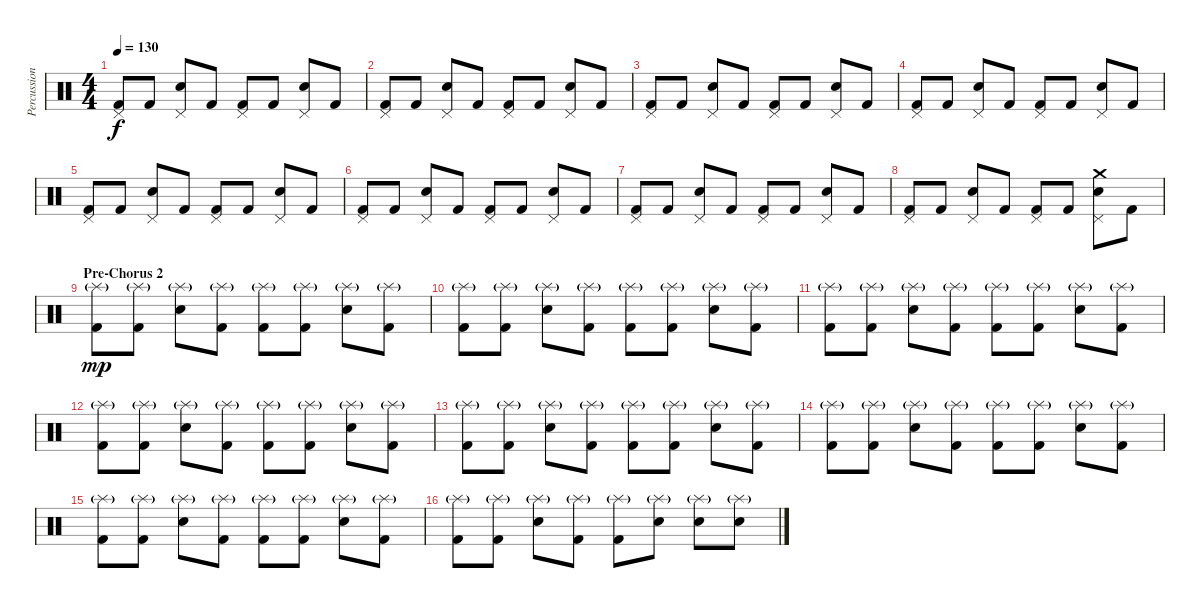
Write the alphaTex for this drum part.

\track ("Percussions" "Percussion") {instrument percussion}
\staff {score}
\articulation defaults
\ts (4 4)
\tempo 130
\clef neutral
\ks c
("Pedal Hi-Hat (hit)" "Kick (hit) 2").8{dy f} "Kick (hit) 2".8 ("Pedal Hi-Hat (hit)" "Snare (hit) 2").8 "Kick (hit) 2".8 ("Pedal Hi-Hat (hit)" "Kick (hit) 2").8 "Kick (hit) 2".8 ("Pedal Hi-Hat (hit)" "Snare (hit) 2").8 "Kick (hit) 2".8 |
("Pedal Hi-Hat (hit)" "Kick (hit) 2").8 "Kick (hit) 2".8 ("Pedal Hi-Hat (hit)" "Snare (hit) 2").8 "Kick (hit) 2".8 ("Pedal Hi-Hat (hit)" "Kick (hit) 2").8 "Kick (hit) 2".8 ("Pedal Hi-Hat (hit)" "Snare (hit) 2").8 "Kick (hit) 2".8 |
("Pedal Hi-Hat (hit)" "Kick (hit) 2").8 "Kick (hit) 2".8 ("Pedal Hi-Hat (hit)" "Snare (hit) 2").8 "Kick (hit) 2".8 ("Pedal Hi-Hat (hit)" "Kick (hit) 2").8 "Kick (hit) 2".8 ("Pedal Hi-Hat (hit)" "Snare (hit) 2").8 "Kick (hit) 2".8 |
("Pedal Hi-Hat (hit)" "Kick (hit) 2").8 "Kick (hit) 2".8 ("Pedal Hi-Hat (hit)" "Snare (hit) 2").8 "Kick (hit) 2".8 ("Pedal Hi-Hat (hit)" "Kick (hit) 2").8 "Kick (hit) 2".8 ("Pedal Hi-Hat (hit)" "Snare (hit) 2").8 "Kick (hit) 2".8 |
("Pedal Hi-Hat (hit)" "Kick (hit) 2").8 "Kick (hit) 2".8 ("Pedal Hi-Hat (hit)" "Snare (hit) 2").8 "Kick (hit) 2".8 ("Pedal Hi-Hat (hit)" "Kick (hit) 2").8 "Kick (hit) 2".8 ("Pedal Hi-Hat (hit)" "Snare (hit) 2").8 "Kick (hit) 2".8 |
("Pedal Hi-Hat (hit)" "Kick (hit) 2").8 "Kick (hit) 2".8 ("Pedal Hi-Hat (hit)" "Snare (hit) 2").8 "Kick (hit) 2".8 ("Pedal Hi-Hat (hit)" "Kick (hit) 2").8 "Kick (hit) 2".8 ("Pedal Hi-Hat (hit)" "Snare (hit) 2").8 "Kick (hit) 2".8 |
("Pedal Hi-Hat (hit)" "Kick (hit) 2").8 "Kick (hit) 2".8 ("Pedal Hi-Hat (hit)" "Snare (hit) 2").8 "Kick (hit) 2".8 ("Pedal Hi-Hat (hit)" "Kick (hit) 2").8 "Kick (hit) 2".8 ("Pedal Hi-Hat (hit)" "Snare (hit) 2").8 "Kick (hit) 2".8 |
("Pedal Hi-Hat (hit)" "Kick (hit) 2").8 "Kick (hit) 2".8 ("Pedal Hi-Hat (hit)" "Snare (hit) 2").8 "Kick (hit) 2".8 ("Pedal Hi-Hat (hit)" "Kick (hit) 2").8 "Kick (hit) 2".8 ("Crash medium (hit)" "Pedal Hi-Hat (hit)" "Snare (hit) 2").8 "Kick (hit) 2".8 |
\section ("" "Pre-Chorus 2")
("Splash (hit)"{g} "Kick (hit) 2").8{dy mp} ("Splash (hit)"{g} "Kick (hit) 2").8 ("Splash (hit)"{g} "Snare (hit) 2").8 ("Splash (hit)"{g} "Kick (hit) 2").8 ("Splash (hit)"{g} "Kick (hit) 2").8 ("Splash (hit)"{g} "Kick (hit) 2").8 ("Splash (hit)"{g} "Snare (hit) 2").8 ("Splash (hit)"{g} "Kick (hit) 2").8 |
("Splash (hit)"{g} "Kick (hit) 2").8 ("Splash (hit)"{g} "Kick (hit) 2").8 ("Splash (hit)"{g} "Snare (hit) 2").8 ("Splash (hit)"{g} "Kick (hit) 2").8 ("Splash (hit)"{g} "Kick (hit) 2").8 ("Splash (hit)"{g} "Kick (hit) 2").8 ("Splash (hit)"{g} "Snare (hit) 2").8 ("Splash (hit)"{g} "Kick (hit) 2").8 |
("Splash (hit)"{g} "Kick (hit) 2").8 ("Splash (hit)"{g} "Kick (hit) 2").8 ("Splash (hit)"{g} "Snare (hit) 2").8 ("Splash (hit)"{g} "Kick (hit) 2").8 ("Splash (hit)"{g} "Kick (hit) 2").8 ("Splash (hit)"{g} "Kick (hit) 2").8 ("Splash (hit)"{g} "Snare (hit) 2").8 ("Splash (hit)"{g} "Kick (hit) 2").8 |
("Splash (hit)"{g} "Kick (hit) 2").8 ("Splash (hit)"{g} "Kick (hit) 2").8 ("Splash (hit)"{g} "Snare (hit) 2").8 ("Splash (hit)"{g} "Kick (hit) 2").8 ("Splash (hit)"{g} "Kick (hit) 2").8 ("Splash (hit)"{g} "Kick (hit) 2").8 ("Splash (hit)"{g} "Snare (hit) 2").8 ("Splash (hit)"{g} "Kick (hit) 2").8 |
("Splash (hit)"{g} "Kick (hit) 2").8 ("Splash (hit)"{g} "Kick (hit) 2").8 ("Splash (hit)"{g} "Snare (hit) 2").8 ("Splash (hit)"{g} "Kick (hit) 2").8 ("Splash (hit)"{g} "Kick (hit) 2").8 ("Splash (hit)"{g} "Kick (hit) 2").8 ("Splash (hit)"{g} "Snare (hit) 2").8 ("Splash (hit)"{g} "Kick (hit) 2").8 |
("Splash (hit)"{g} "Kick (hit) 2").8 ("Splash (hit)"{g} "Kick (hit) 2").8 ("Splash (hit)"{g} "Snare (hit) 2").8 ("Splash (hit)"{g} "Kick (hit) 2").8 ("Splash (hit)"{g} "Kick (hit) 2").8 ("Splash (hit)"{g} "Kick (hit) 2").8 ("Splash (hit)"{g} "Snare (hit) 2").8 ("Splash (hit)"{g} "Kick (hit) 2").8 |
("Splash (hit)"{g} "Kick (hit) 2").8 ("Splash (hit)"{g} "Kick (hit) 2").8 ("Splash (hit)"{g} "Snare (hit) 2").8 ("Splash (hit)"{g} "Kick (hit) 2").8 ("Splash (hit)"{g} "Kick (hit) 2").8 ("Splash (hit)"{g} "Kick (hit) 2").8 ("Splash (hit)"{g} "Snare (hit) 2").8 ("Splash (hit)"{g} "Kick (hit) 2").8 |
("Splash (hit)"{g} "Kick (hit) 2").8 ("Splash (hit)"{g} "Kick (hit) 2").8 ("Splash (hit)"{g} "Snare (hit) 2").8 ("Splash (hit)"{g} "Kick (hit) 2").8 ("Splash (hit)"{g} "Kick (hit) 2").8 ("Splash (hit)"{g} "Snare (hit) 2").8 ("Splash (hit)"{g} "Snare (hit) 2").8 ("Splash (hit)"{g} "Snare (hit) 2").8
